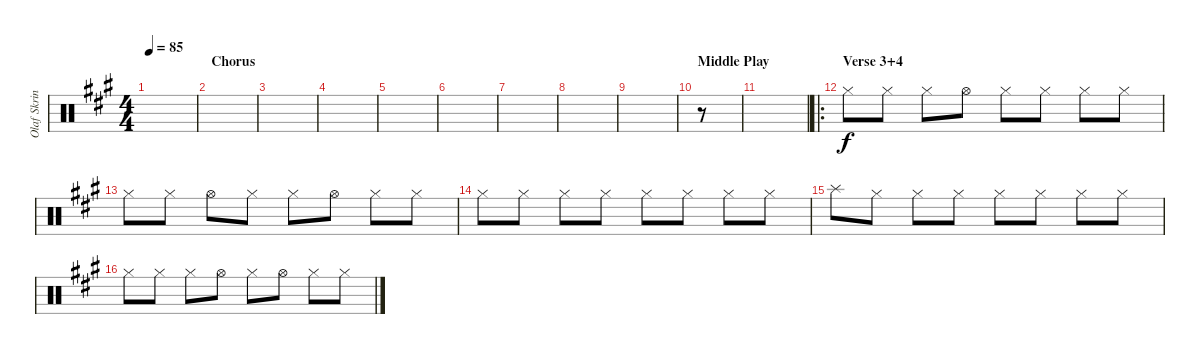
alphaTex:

\track ("Olaf Skrinde (Drums)" "Olaf Skrin") {instrument percussion}
\staff {score}
\articulation defaults
\ts (4 4)
\tempo 85
\clef neutral
\ks a
|
\section ("" "Chorus")
|
|
|
|
|
|
|
|
\section ("" "Middle Play")
r.8 |
|
\ro
\section ("" "Verse 3+4")
"Hi-Hat (closed)".8 "Hi-Hat (closed)".8 "Hi-Hat (closed)".8 "Hi-Hat (open)".8 "Hi-Hat (closed)".8 "Hi-Hat (closed)".8 "Hi-Hat (closed)".8 "Hi-Hat (closed)".8 |
"Hi-Hat (closed)".8 "Hi-Hat (closed)".8 "Hi-Hat (open)".8 "Hi-Hat (closed)".8 "Hi-Hat (closed)".8 "Hi-Hat (open)".8 "Hi-Hat (closed)".8 "Hi-Hat (closed)".8 |
"Hi-Hat (closed)".8 "Hi-Hat (closed)".8 "Hi-Hat (closed)".8 "Hi-Hat (closed)".8 "Hi-Hat (closed)".8 "Hi-Hat (closed)".8 "Hi-Hat (closed)".8 "Hi-Hat (closed)".8 |
"Splash (hit)".8 "Hi-Hat (closed)".8 "Hi-Hat (closed)".8 "Hi-Hat (closed)".8 "Hi-Hat (closed)".8 "Hi-Hat (closed)".8 "Hi-Hat (closed)".8 "Hi-Hat (closed)".8 |
"Hi-Hat (closed)".8 "Hi-Hat (closed)".8 "Hi-Hat (closed)".8 "Hi-Hat (open)".8 "Hi-Hat (closed)".8 "Hi-Hat (open)".8 "Hi-Hat (closed)".8 "Hi-Hat (closed)".8
